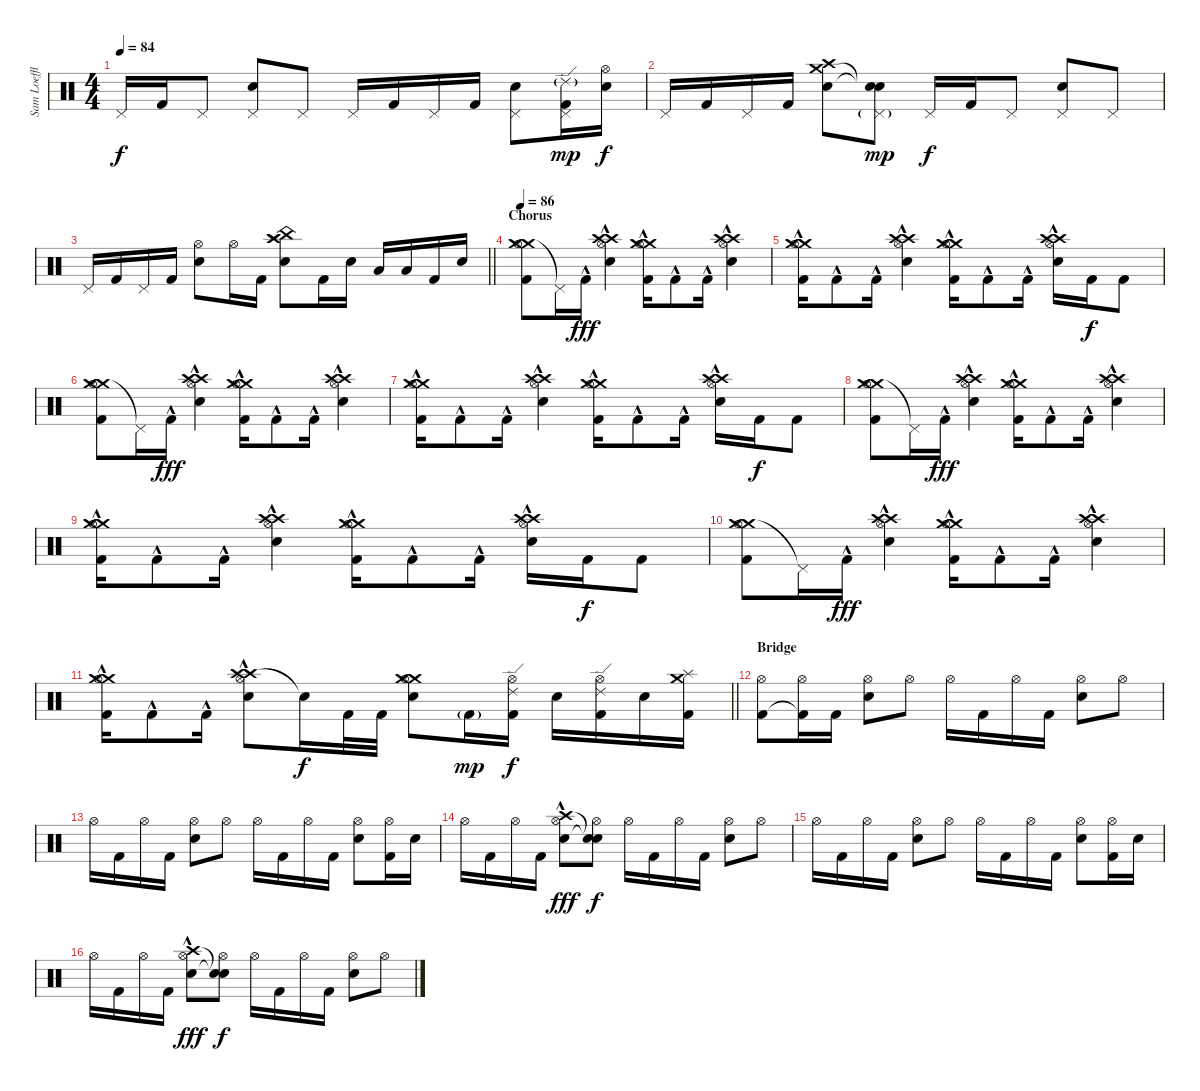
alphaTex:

\track ("Sam Loeffler- Drums" "Sam Loeffl") {instrument percussion}
\staff {score}
\articulation defaults
\ts (4 4)
\tempo 84
\clef neutral
\ks c "Pedal Hi-Hat (hit)".16{dy f} "Kick (hit) 2".16 "Pedal Hi-Hat (hit)".8
("Pedal Hi-Hat (hit)" "Electric Snare (hit)").8 "Pedal Hi-Hat (hit)".8 "Pedal Hi-Hat (hit)".16 "Kick (hit) 2".16 "Pedal Hi-Hat (hit)".16 "Kick (hit) 2".16 ("Pedal Hi-Hat (hit)" "Electric Snare (hit)").8 ("Ride (edge) 2"{g} "Pedal Hi-Hat (hit)" "Kick (hit) 2").16{dy mp} ("Hi-Hat (open)" "Electric Snare (hit)").16{dy f} |
"Pedal Hi-Hat (hit)".16 "Kick (hit) 2".16 "Pedal Hi-Hat (hit)".16 "Kick (hit) 2".16 ("Crash medium (hit)" "Crash high (hit)" "Electric Snare (hit)").8 ("Snare (hit)"{t} "Pedal Hi-Hat (hit)"{g} "Snare (hit)"{t}).8{dy mp} "Pedal Hi-Hat (hit)".16{dy f} "Kick (hit) 2".16 "Pedal Hi-Hat (hit)".8 ("Pedal Hi-Hat (hit)" "Electric Snare (hit)").8 "Pedal Hi-Hat (hit)".8 |
\barLineRight lightlight "Pedal Hi-Hat (hit)".16 "Kick (hit) 2".16 "Pedal Hi-Hat (hit)".16 "Kick (hit) 2".16
("Hi-Hat (open)" "Electric Snare (hit)").8 "Hi-Hat (open)".16 "Kick (hit) 2".16 ("China (hit)" "Crash high (hit)" "Crash high (hit)" "Electric Snare (hit)").8 "Kick (hit) 2".16 "Electric Snare (hit)".16 "Low Tom (hit)".16 "Low Floor Tom (hit)".16 "Kick (hit) 2".16 "Electric Snare (hit)".16 |
\section ("" "Chorus")
\tempo 86
("Crash medium (hit)" "Crash medium (hit)" "Hi-Hat (open)" "Kick (hit) 2").8 "Pedal Hi-Hat (hit)"{t}.16 "Kick (hit) 2"{hac}.16{dy fff} ("Crash high (hit)" "Crash high (hit)" "Hi-Hat (open)" "Electric Snare (hit)"{hac}).4 ("Crash medium (hit)" "Crash medium (hit)" "Hi-Hat (open)" "Kick (hit) 2"{hac}).16 "Kick (hit) 2"{hac}.8 "Kick (hit) 2"{hac}.16 ("Crash high (hit)" "Crash high (hit)" "Hi-Hat (open)" "Electric Snare (hit)"{hac}).4 |
("Crash medium (hit)" "Crash medium (hit)" "Hi-Hat (open)" "Kick (hit) 2"{hac}).16 "Kick (hit) 2"{hac}.8 "Kick (hit) 2"{hac}.16 ("Crash high (hit)" "Crash high (hit)" "Hi-Hat (open)" "Electric Snare (hit)"{hac}).4 ("Crash medium (hit)" "Crash medium (hit)" "Hi-Hat (open)" "Kick (hit) 2"{hac}).16 "Kick (hit) 2"{hac}.8 "Kick (hit) 2"{hac}.16 ("Crash high (hit)" "Crash high (hit)" "Hi-Hat (open)" "Electric Snare (hit)"{hac}).16 "Kick (hit) 2".16{dy f} "Kick (hit) 2".8 |
("Crash medium (hit)" "Crash medium (hit)" "Hi-Hat (open)" "Kick (hit) 2").8 "Pedal Hi-Hat (hit)"{t}.16 "Kick (hit) 2"{hac}.16{dy fff} ("Crash high (hit)" "Crash high (hit)" "Hi-Hat (open)" "Electric Snare (hit)"{hac}).4 ("Crash medium (hit)" "Crash medium (hit)" "Hi-Hat (open)" "Kick (hit) 2"{hac}).16 "Kick (hit) 2"{hac}.8 "Kick (hit) 2"{hac}.16 ("Crash high (hit)" "Crash high (hit)" "Hi-Hat (open)" "Electric Snare (hit)"{hac}).4 |
("Crash medium (hit)" "Crash medium (hit)" "Hi-Hat (open)" "Kick (hit) 2"{hac}).16 "Kick (hit) 2"{hac}.8 "Kick (hit) 2"{hac}.16 ("Crash high (hit)" "Crash high (hit)" "Hi-Hat (open)" "Electric Snare (hit)"{hac}).4 ("Crash medium (hit)" "Crash medium (hit)" "Hi-Hat (open)" "Kick (hit) 2"{hac}).16 "Kick (hit) 2"{hac}.8 "Kick (hit) 2"{hac}.16 ("Crash high (hit)" "Crash high (hit)" "Hi-Hat (open)" "Electric Snare (hit)"{hac}).16 "Kick (hit) 2".16{dy f} "Kick (hit) 2".8 |
("Crash medium (hit)" "Crash medium (hit)" "Hi-Hat (open)" "Kick (hit) 2").8 "Pedal Hi-Hat (hit)"{t}.16 "Kick (hit) 2"{hac}.16{dy fff} ("Crash high (hit)" "Crash high (hit)" "Hi-Hat (open)" "Electric Snare (hit)"{hac}).4 ("Crash medium (hit)" "Crash medium (hit)" "Hi-Hat (open)" "Kick (hit) 2"{hac}).16 "Kick (hit) 2"{hac}.8 "Kick (hit) 2"{hac}.16 ("Crash high (hit)" "Crash high (hit)" "Hi-Hat (open)" "Electric Snare (hit)"{hac}).4 |
("Crash medium (hit)" "Crash medium (hit)" "Hi-Hat (open)" "Kick (hit) 2"{hac}).16 "Kick (hit) 2"{hac}.8 "Kick (hit) 2"{hac}.16 ("Crash high (hit)" "Crash high (hit)" "Hi-Hat (open)" "Electric Snare (hit)"{hac}).4 ("Crash medium (hit)" "Crash medium (hit)" "Hi-Hat (open)" "Kick (hit) 2"{hac}).16 "Kick (hit) 2"{hac}.8 "Kick (hit) 2"{hac}.16 ("Crash high (hit)" "Crash high (hit)" "Hi-Hat (open)" "Electric Snare (hit)"{hac}).16 "Kick (hit) 2".16{dy f} "Kick (hit) 2".8 |
("Crash medium (hit)" "Crash medium (hit)" "Hi-Hat (open)" "Kick (hit) 2").8 "Pedal Hi-Hat (hit)"{t}.16 "Kick (hit) 2"{hac}.16{dy fff} ("Crash high (hit)" "Crash high (hit)" "Hi-Hat (open)" "Electric Snare (hit)"{hac}).4 ("Crash medium (hit)" "Crash medium (hit)" "Hi-Hat (open)" "Kick (hit) 2"{hac}).16 "Kick (hit) 2"{hac}.8 "Kick (hit) 2"{hac}.16 ("Crash high (hit)" "Crash high (hit)" "Hi-Hat (open)" "Electric Snare (hit)"{hac}).4 |
\barLineRight lightlight
("Crash medium (hit)" "Crash medium (hit)" "Hi-Hat (open)" "Kick (hit) 2"{hac}).16 "Kick (hit) 2"{hac}.8 "Kick (hit) 2"{hac}.16 ("Crash high (hit)" "Crash high (hit)" "Hi-Hat (open)" "Electric Snare (hit)"{hac}).8 "Snare (hit)"{t}.16{dy f} "Kick (hit) 2".32 "Kick (hit) 2".32 ("Crash medium (hit)" "Crash medium (hit)" "Hi-Hat (open)" "Electric Snare (hit)").8 "Kick (hit) 2"{g}.16{dy mp} ("Ride (edge) 2" "Hi-Hat (open)" "Kick (hit) 2").16{dy f} "Electric Snare (hit)".16 ("Ride (edge) 2" "Hi-Hat (open)" "Kick (hit) 2").16 "Electric Snare (hit)".16 ("Crash medium (hit)" "Splash (hit)" "Kick (hit) 2").16 |
\section ("" "Bridge")
("Hi-Hat (open)" "Kick (hit) 2").8 ("Hi-Hat (open)" "Kick (hit) 2"{t}).16 "Kick (hit) 2".16 ("Hi-Hat (open)" "Electric Snare (hit)").8 "Hi-Hat (open)".8 "Hi-Hat (open)".16 "Kick (hit) 2".16 "Hi-Hat (open)".16 "Kick (hit) 2".16 ("Hi-Hat (open)" "Electric Snare (hit)").8 "Hi-Hat (open)".8 |
"Hi-Hat (open)".16 "Kick (hit) 2".16 "Hi-Hat (open)".16 "Kick (hit) 2".16 ("Hi-Hat (open)" "Electric Snare (hit)").8 "Hi-Hat (open)".8 "Hi-Hat (open)".16 "Kick (hit) 2".16 "Hi-Hat (open)".16 "Kick (hit) 2".16 ("Hi-Hat (open)" "Electric Snare (hit)").8 ("Hi-Hat (open)" "Kick (hit) 2").16 "Electric Snare (hit)".16 |
"Hi-Hat (open)".16 "Kick (hit) 2".16 "Hi-Hat (open)".16 "Kick (hit) 2".16 ("Crash high (hit)" "Hi-Hat (open)" "Electric Snare (hit)"{hac}).8{dy fff} ("Snare (hit)"{t} "Hi-Hat (open)" "Snare (hit)"{t}).8{dy f} "Hi-Hat (open)".16 "Kick (hit) 2".16 "Hi-Hat (open)".16 "Kick (hit) 2".16 ("Hi-Hat (open)" "Electric Snare (hit)").8 "Hi-Hat (open)".8 |
"Hi-Hat (open)".16 "Kick (hit) 2".16 "Hi-Hat (open)".16 "Kick (hit) 2".16 ("Hi-Hat (open)" "Electric Snare (hit)").8 "Hi-Hat (open)".8 "Hi-Hat (open)".16 "Kick (hit) 2".16 "Hi-Hat (open)".16 "Kick (hit) 2".16 ("Hi-Hat (open)" "Electric Snare (hit)").8 ("Hi-Hat (open)" "Kick (hit) 2").16 "Electric Snare (hit)".16 |
"Hi-Hat (open)".16 "Kick (hit) 2".16 "Hi-Hat (open)".16 "Kick (hit) 2".16 ("Crash high (hit)" "Hi-Hat (open)" "Electric Snare (hit)"{hac}).8{dy fff} ("Snare (hit)"{t} "Hi-Hat (open)" "Snare (hit)"{t}).8{dy f} "Hi-Hat (open)".16 "Kick (hit) 2".16 "Hi-Hat (open)".16 "Kick (hit) 2".16 ("Hi-Hat (open)" "Electric Snare (hit)").8 "Hi-Hat (open)".8
